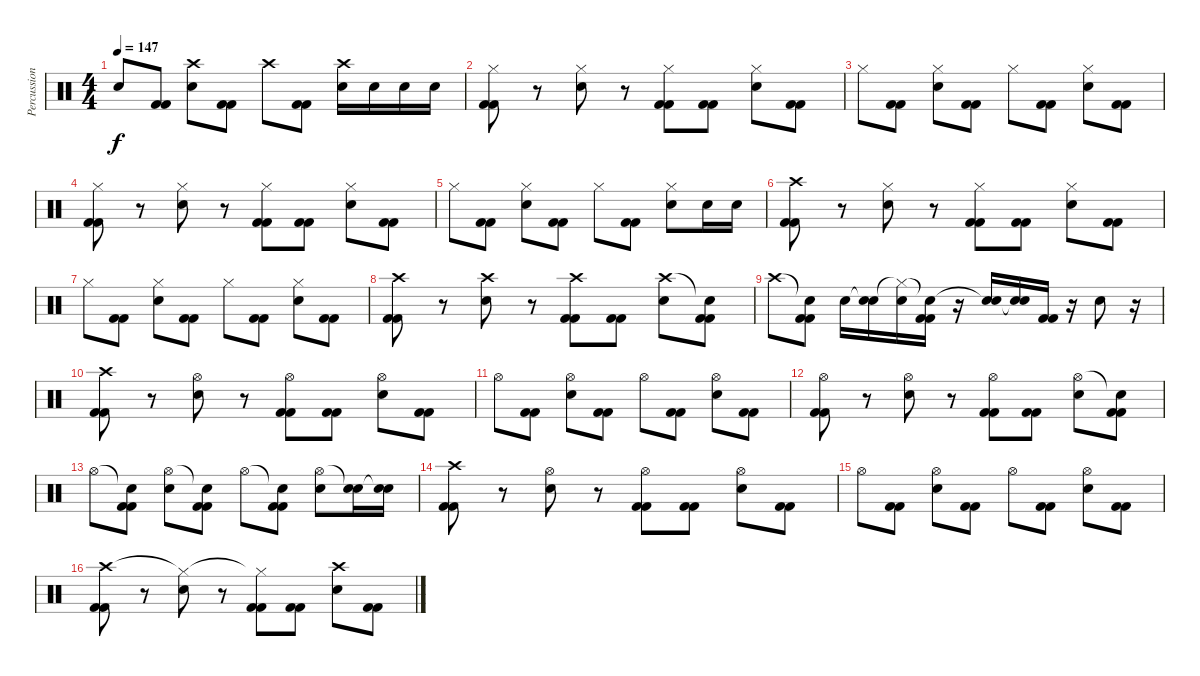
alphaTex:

\track ("Percussions" "Percussion") {instrument percussion}
\staff {score}
\articulation defaults
\ts (4 4)
\tempo 147
\clef neutral
\ks c "Snare (hit)"{t}.8{dy f}
("Kick (hit) 2" "Kick (hit) 2").8 ("Crash high (hit)" "Snare (hit) 2").8 ("Kick (hit) 2" "Kick (hit) 2").8 "Crash high (hit)".8 ("Kick (hit) 2" "Kick (hit) 2").8 ("Crash high (hit)" "Snare (hit) 2").16 "Snare (hit) 2".16 "Snare (hit) 2".16 "Snare (hit) 2".16 |
("Hi-Hat (closed)" "Kick (hit) 2" "Kick (hit) 2").8 r.8 ("Hi-Hat (closed)" "Snare (hit) 2").8 r.8 ("Hi-Hat (closed)" "Kick (hit) 2" "Kick (hit) 2").8 ("Kick (hit) 2" "Kick (hit) 2").8 ("Hi-Hat (closed)" "Snare (hit) 2").8 ("Kick (hit) 2" "Kick (hit) 2").8 |
"Hi-Hat (closed)".8 ("Kick (hit) 2" "Kick (hit) 2").8 ("Hi-Hat (closed)" "Snare (hit) 2").8 ("Kick (hit) 2" "Kick (hit) 2").8 "Hi-Hat (closed)".8 ("Kick (hit) 2" "Kick (hit) 2").8 ("Hi-Hat (closed)" "Snare (hit) 2").8 ("Kick (hit) 2" "Kick (hit) 2").8 |
("Hi-Hat (closed)" "Kick (hit) 2" "Kick (hit) 2").8 r.8 ("Hi-Hat (closed)" "Snare (hit) 2").8 r.8 ("Hi-Hat (closed)" "Kick (hit) 2" "Kick (hit) 2").8 ("Kick (hit) 2" "Kick (hit) 2").8 ("Hi-Hat (closed)" "Snare (hit) 2").8 ("Kick (hit) 2" "Kick (hit) 2").8 |
"Hi-Hat (closed)".8 ("Kick (hit) 2" "Kick (hit) 2").8 ("Hi-Hat (closed)" "Snare (hit) 2").8 ("Kick (hit) 2" "Kick (hit) 2").8 "Hi-Hat (closed)".8 ("Kick (hit) 2" "Kick (hit) 2").8 ("Hi-Hat (closed)" "Snare (hit) 2").8 "Snare (hit) 2".16 "Snare (hit) 2".16 |
("Crash high (hit)" "Kick (hit) 2" "Kick (hit) 2").8 r.8 ("Hi-Hat (closed)" "Snare (hit) 2").8 r.8 ("Hi-Hat (closed)" "Kick (hit) 2" "Kick (hit) 2").8 ("Kick (hit) 2" "Kick (hit) 2").8 ("Hi-Hat (closed)" "Snare (hit) 2").8 ("Kick (hit) 2" "Kick (hit) 2").8 |
"Hi-Hat (closed)".8 ("Kick (hit) 2" "Kick (hit) 2").8 ("Hi-Hat (closed)" "Snare (hit) 2").8 ("Kick (hit) 2" "Kick (hit) 2").8 "Hi-Hat (closed)".8 ("Kick (hit) 2" "Kick (hit) 2").8 ("Hi-Hat (closed)" "Snare (hit) 2").8 ("Kick (hit) 2" "Kick (hit) 2").8 |
("Crash high (hit)" "Kick (hit) 2" "Kick (hit) 2").8 r.8 ("Crash high (hit)" "Snare (hit) 2").8 r.8 ("Crash high (hit)" "Kick (hit) 2" "Kick (hit) 2").8 ("Kick (hit) 2" "Kick (hit) 2").8 ("Crash high (hit)" "Snare (hit) 2").8 ("Snare (hit)"{t} "Kick (hit) 2" "Kick (hit) 2").8 |
"Crash high (hit)".8 ("Snare (hit)"{t} "Kick (hit) 2" "Kick (hit) 2").8 "Snare (hit) 2".16 ("Snare (hit)"{t} "Snare (hit) 2").16 ("Hi-Hat (closed)"{t} "Snare (hit) 2").16 ("Snare (hit)"{t} "Kick (hit) 2" "Kick (hit) 2").16 r.16 ("Snare (hit)"{t} "Snare (hit) 2").16 ("Snare (hit)"{t} "Snare (hit) 2").16 ("Kick (hit) 2" "Kick (hit) 2").16 r.16 "Snare (hit) 2".8 r.16 |
("Crash high (hit)" "Kick (hit) 2" "Kick (hit) 2").8 r.8 ("Hi-Hat (open)" "Snare (hit) 2").8 r.8 ("Hi-Hat (open)" "Kick (hit) 2" "Kick (hit) 2").8 ("Kick (hit) 2" "Kick (hit) 2").8 ("Hi-Hat (open)" "Snare (hit) 2").8 ("Kick (hit) 2" "Kick (hit) 2").8 |
"Hi-Hat (open)".8 ("Kick (hit) 2" "Kick (hit) 2").8 ("Hi-Hat (open)" "Snare (hit) 2").8 ("Kick (hit) 2" "Kick (hit) 2").8 "Hi-Hat (open)".8 ("Kick (hit) 2" "Kick (hit) 2").8 ("Hi-Hat (open)" "Snare (hit) 2").8 ("Kick (hit) 2" "Kick (hit) 2").8 |
("Hi-Hat (open)" "Kick (hit) 2" "Kick (hit) 2").8 r.8 ("Hi-Hat (open)" "Snare (hit) 2").8 r.8 ("Hi-Hat (open)" "Kick (hit) 2" "Kick (hit) 2").8 ("Kick (hit) 2" "Kick (hit) 2").8 ("Hi-Hat (open)" "Snare (hit) 2").8 ("Snare (hit)"{t} "Kick (hit) 2" "Kick (hit) 2").8 |
"Hi-Hat (open)".8 ("Snare (hit)"{t} "Kick (hit) 2" "Kick (hit) 2").8 ("Hi-Hat (open)" "Snare (hit) 2").8 ("Snare (hit)"{t} "Kick (hit) 2" "Kick (hit) 2").8 "Hi-Hat (open)".8 ("Snare (hit)"{t} "Kick (hit) 2" "Kick (hit) 2").8 ("Hi-Hat (open)" "Snare (hit) 2").8 ("Snare (hit)"{t} "Snare (hit) 2").16 ("Snare (hit)"{t} "Snare (hit) 2").16 |
("Crash high (hit)" "Kick (hit) 2" "Kick (hit) 2").8 r.8 ("Hi-Hat (open)" "Snare (hit) 2").8 r.8 ("Hi-Hat (open)" "Kick (hit) 2" "Kick (hit) 2").8 ("Kick (hit) 2" "Kick (hit) 2").8 ("Hi-Hat (open)" "Snare (hit) 2").8 ("Kick (hit) 2" "Kick (hit) 2").8 |
"Hi-Hat (open)".8 ("Kick (hit) 2" "Kick (hit) 2").8 ("Hi-Hat (open)" "Snare (hit) 2").8 ("Kick (hit) 2" "Kick (hit) 2").8 "Hi-Hat (open)".8 ("Kick (hit) 2" "Kick (hit) 2").8 ("Hi-Hat (open)" "Snare (hit) 2").8 ("Kick (hit) 2" "Kick (hit) 2").8 |
("Crash high (hit)" "Kick (hit) 2" "Kick (hit) 2").8 r.8 ("Hi-Hat (closed)"{t} "Snare (hit) 2").8 r.8 ("Hi-Hat (closed)"{t} "Kick (hit) 2" "Kick (hit) 2").8 ("Kick (hit) 2" "Kick (hit) 2").8 ("Crash high (hit)" "Snare (hit) 2").8 ("Kick (hit) 2" "Kick (hit) 2").8
